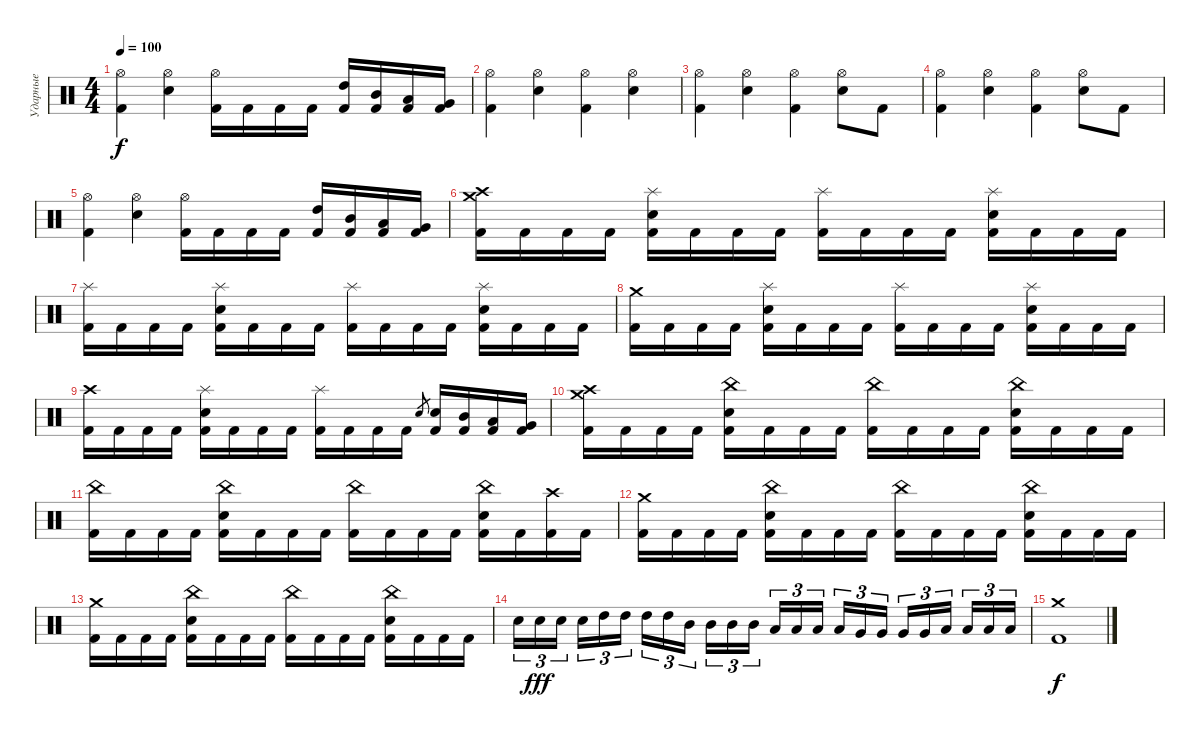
\track ("Ударные" "Ударные") {instrument percussion}
\staff {score}
\articulation defaults
\ts (4 4)
\tempo 100
\clef neutral
\ks c
("Hi-Hat (open)" "Kick (hit) 2").4{dy f} ("Hi-Hat (open)" "Electric Snare (hit)").4 ("Hi-Hat (open)" "Kick (hit) 2").16 "Kick (hit) 2".16 "Kick (hit) 2".16 "Kick (hit) 2".16 ("High Tom (hit)" "Kick (hit) 2").16 ("Mid Tom (hit)" "Kick (hit) 2").16 ("Low Tom (hit)" "Kick (hit) 2").16 ("Very Low Tom (hit)" "Kick (hit) 2").16 |
("Hi-Hat (open)" "Kick (hit) 2").4 ("Hi-Hat (open)" "Electric Snare (hit)").4 ("Hi-Hat (open)" "Kick (hit) 2").4 ("Hi-Hat (open)" "Electric Snare (hit)").4 |
("Hi-Hat (open)" "Kick (hit) 2").4 ("Hi-Hat (open)" "Electric Snare (hit)").4 ("Hi-Hat (open)" "Kick (hit) 2").4 ("Hi-Hat (open)" "Electric Snare (hit)").8 "Kick (hit) 2".8 |
("Hi-Hat (open)" "Kick (hit) 2").4 ("Hi-Hat (open)" "Electric Snare (hit)").4 ("Hi-Hat (open)" "Kick (hit) 2").4 ("Hi-Hat (open)" "Electric Snare (hit)").8 "Kick (hit) 2".8 |
("Hi-Hat (open)" "Kick (hit) 2").4 ("Hi-Hat (open)" "Electric Snare (hit)").4 ("Hi-Hat (open)" "Kick (hit) 2").16 "Kick (hit) 2".16 "Kick (hit) 2".16 "Kick (hit) 2".16 ("High Tom (hit)" "Kick (hit) 2").16 ("Mid Tom (hit)" "Kick (hit) 2").16 ("Low Tom (hit)" "Kick (hit) 2").16 ("Very Low Tom (hit)" "Kick (hit) 2").16 |
("Crash medium (hit)" "Crash high (hit)" "Kick (hit) 2").16 "Kick (hit) 2".16 "Kick (hit) 2".16 "Kick (hit) 2".16 ("Splash (hit)" "Electric Snare (hit)" "Kick (hit) 2").16 "Kick (hit) 2".16 "Kick (hit) 2".16 "Kick (hit) 2".16 ("Splash (hit)" "Kick (hit) 2").16 "Kick (hit) 2".16 "Kick (hit) 2".16 "Kick (hit) 2".16 ("Splash (hit)" "Electric Snare (hit)" "Kick (hit) 2").16 "Kick (hit) 2".16 "Kick (hit) 2".16 "Kick (hit) 2".16 |
("Splash (hit)" "Kick (hit) 2").16 "Kick (hit) 2".16 "Kick (hit) 2".16 "Kick (hit) 2".16 ("Splash (hit)" "Electric Snare (hit)" "Kick (hit) 2").16 "Kick (hit) 2".16 "Kick (hit) 2".16 "Kick (hit) 2".16 ("Splash (hit)" "Kick (hit) 2").16 "Kick (hit) 2".16 "Kick (hit) 2".16 "Kick (hit) 2".16 ("Splash (hit)" "Electric Snare (hit)" "Kick (hit) 2").16 "Kick (hit) 2".16 "Kick (hit) 2".16 "Kick (hit) 2".16 |
("Crash medium (hit)" "Kick (hit) 2").16 "Kick (hit) 2".16 "Kick (hit) 2".16 "Kick (hit) 2".16 ("Splash (hit)" "Electric Snare (hit)" "Kick (hit) 2").16 "Kick (hit) 2".16 "Kick (hit) 2".16 "Kick (hit) 2".16 ("Splash (hit)" "Kick (hit) 2").16 "Kick (hit) 2".16 "Kick (hit) 2".16 "Kick (hit) 2".16 ("Splash (hit)" "Electric Snare (hit)" "Kick (hit) 2").16 "Kick (hit) 2".16 "Kick (hit) 2".16 "Kick (hit) 2".16 |
("Crash high (hit)" "Kick (hit) 2").16 "Kick (hit) 2".16 "Kick (hit) 2".16 "Kick (hit) 2".16 ("Splash (hit)" "Electric Snare (hit)" "Kick (hit) 2").16 "Kick (hit) 2".16 "Kick (hit) 2".16 "Kick (hit) 2".16 ("Splash (hit)" "Kick (hit) 2").16 "Kick (hit) 2".16 "Kick (hit) 2".16 "Kick (hit) 2".16 "Electric Snare (hit)".8{gr} ("Electric Snare (hit)" "Kick (hit) 2").16 ("Mid Tom (hit)" "Kick (hit) 2").16 ("Low Tom (hit)" "Kick (hit) 2").16 ("Very Low Tom (hit)" "Kick (hit) 2").16 |
("Crash medium (hit)" "Crash high (hit)" "Kick (hit) 2").16{volume 12} "Kick (hit) 2".16 "Kick (hit) 2".16 "Kick (hit) 2".16 ("China (hit)" "Electric Snare (hit)" "Kick (hit) 2").16 "Kick (hit) 2".16 "Kick (hit) 2".16 "Kick (hit) 2".16 ("China (hit)" "Kick (hit) 2").16 "Kick (hit) 2".16 "Kick (hit) 2".16 "Kick (hit) 2".16 ("China (hit)" "Electric Snare (hit)" "Kick (hit) 2").16 "Kick (hit) 2".16 "Kick (hit) 2".16 "Kick (hit) 2".16 |
("China (hit)" "Kick (hit) 2").16{volume 11} "Kick (hit) 2".16 "Kick (hit) 2".16 "Kick (hit) 2".16 ("China (hit)" "Electric Snare (hit)" "Kick (hit) 2").16 "Kick (hit) 2".16 "Kick (hit) 2".16 "Kick (hit) 2".16 ("China (hit)" "Kick (hit) 2").16 "Kick (hit) 2".16 "Kick (hit) 2".16 "Kick (hit) 2".16 ("China (hit)" "Electric Snare (hit)" "Kick (hit) 2").16 "Kick (hit) 2".16 ("Crash high (hit)" "Kick (hit) 2").16 "Kick (hit) 2".16 |
("Crash medium (hit)" "Kick (hit) 2").16{volume 9} "Kick (hit) 2".16 "Kick (hit) 2".16 "Kick (hit) 2".16 ("China (hit)" "Electric Snare (hit)" "Kick (hit) 2").16 "Kick (hit) 2".16 "Kick (hit) 2".16 "Kick (hit) 2".16 ("China (hit)" "Kick (hit) 2").16 "Kick (hit) 2".16 "Kick (hit) 2".16 "Kick (hit) 2".16 ("China (hit)" "Electric Snare (hit)" "Kick (hit) 2").16 "Kick (hit) 2".16 "Kick (hit) 2".16 "Kick (hit) 2".16 |
("Crash medium (hit)" "Kick (hit) 2").16{volume 6} "Kick (hit) 2".16 "Kick (hit) 2".16 "Kick (hit) 2".16 ("China (hit)" "Electric Snare (hit)" "Kick (hit) 2").16 "Kick (hit) 2".16 "Kick (hit) 2".16 "Kick (hit) 2".16 ("China (hit)" "Kick (hit) 2").16 "Kick (hit) 2".16 "Kick (hit) 2".16 "Kick (hit) 2".16 ("China (hit)" "Electric Snare (hit)" "Kick (hit) 2").16 "Kick (hit) 2".16 "Kick (hit) 2".16 "Kick (hit) 2".16 |
"Electric Snare (hit)".16{tu (3 2) volume 3} "Electric Snare (hit)".16{tu (3 2) dy fff} "Electric Snare (hit)".16{tu (3 2) beam splitsecondary} "Electric Snare (hit)".16{tu (3 2)} "High Tom (hit)".16{tu (3 2)} "High Tom (hit)".16{tu (3 2)} "High Tom (hit)".16{tu (3 2)} "High Tom (hit)".16{tu (3 2)} "Mid Tom (hit)".16{tu (3 2) beam splitsecondary} "Mid Tom (hit)".16{tu (3 2)} "Mid Tom (hit)".16{tu (3 2)} "Mid Tom (hit)".16{tu (3 2)} "Low Tom (hit)".16{tu (3 2)} "Low Tom (hit)".16{tu (3 2)} "Low Tom (hit)".16{tu (3 2) volume 3 beam splitsecondary} "Low Tom (hit)".16{tu (3 2)} "Very Low Tom (hit)".16{tu (3 2)} "Very Low Tom (hit)".16{tu (3 2)} "Very Low Tom (hit)".16{tu (3 2)} "Very Low Tom (hit)".16{tu (3 2)} "Low Floor Tom (hit)".16{tu (3 2) beam splitsecondary} "Low Floor Tom (hit)".16{tu (3 2)} "Low Floor Tom (hit)".16{tu (3 2)} "Low Floor Tom (hit)".16{tu (3 2)} |
("Crash medium (hit)" "Kick (hit) 2").1{dy f}
